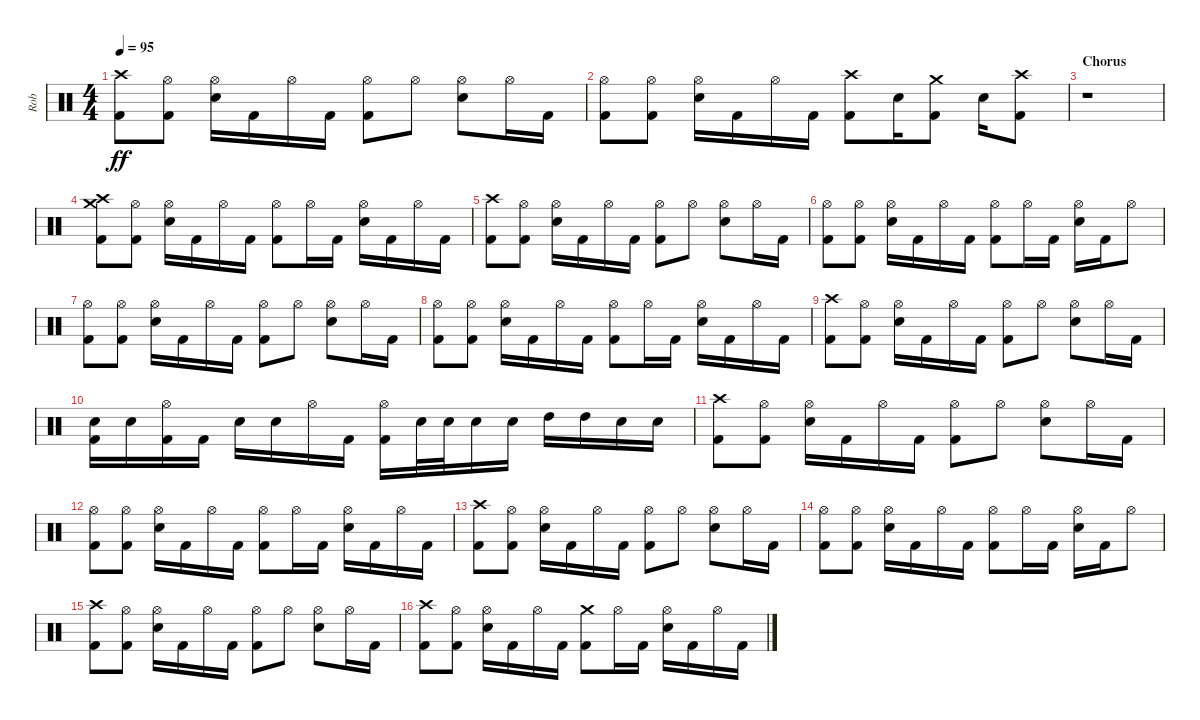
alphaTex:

\track ("Rob" "Rob") {instrument percussion}
\staff {score}
\articulation defaults
\ts (4 4)
\tempo 95
\clef neutral
\ks c
("Crash high (hit)" "Kick (hit) 2").8{dy ff} ("Hi-Hat (open)" "Kick (hit) 2").8 ("Hi-Hat (open)" "Snare (hit) 2").16 "Kick (hit) 2".16 "Hi-Hat (open)".16 "Kick (hit) 2".16 ("Hi-Hat (open)" "Kick (hit) 2").8 "Hi-Hat (open)".8 ("Hi-Hat (open)" "Snare (hit) 2").8 "Hi-Hat (open)".16 "Kick (hit) 2".16 |
("Hi-Hat (open)" "Kick (hit) 2").8 ("Hi-Hat (open)" "Kick (hit) 2").8 ("Hi-Hat (open)" "Snare (hit) 2").16 "Kick (hit) 2".16 "Hi-Hat (open)".16 "Kick (hit) 2".16 ("Crash high (hit)" "Kick (hit) 2").8 "Snare (hit) 2".16 ("Crash medium (hit)" "Kick (hit) 2").8 "Snare (hit) 2".16 ("Crash high (hit)" "Kick (hit) 2").8 |
\section ("" "Chorus")
r.1 |
("Crash high (hit)" "Crash medium (hit)" "Kick (hit) 2").8 ("Hi-Hat (open)" "Kick (hit) 2").8 ("Hi-Hat (open)" "Snare (hit) 2").16 "Kick (hit) 2".16 "Hi-Hat (open)".16 "Kick (hit) 2".16 ("Hi-Hat (open)" "Kick (hit) 2").8 "Hi-Hat (open)".16 "Kick (hit) 2".16 ("Hi-Hat (open)" "Snare (hit) 2").16 "Kick (hit) 2".16 "Hi-Hat (open)".16 "Kick (hit) 2".16 |
("Crash high (hit)" "Kick (hit) 2").8 ("Hi-Hat (open)" "Kick (hit) 2").8 ("Hi-Hat (open)" "Snare (hit) 2").16 "Kick (hit) 2".16 "Hi-Hat (open)".16 "Kick (hit) 2".16 ("Hi-Hat (open)" "Kick (hit) 2").8 "Hi-Hat (open)".8 ("Hi-Hat (open)" "Snare (hit) 2").8 "Hi-Hat (open)".16 "Kick (hit) 2".16 |
("Hi-Hat (open)" "Kick (hit) 2").8 ("Hi-Hat (open)" "Kick (hit) 2").8 ("Hi-Hat (open)" "Snare (hit) 2").16 "Kick (hit) 2".16 "Hi-Hat (open)".16 "Kick (hit) 2".16 ("Hi-Hat (open)" "Kick (hit) 2").8 "Hi-Hat (open)".16 "Kick (hit) 2".16 ("Hi-Hat (open)" "Snare (hit) 2").16 "Kick (hit) 2".16 "Hi-Hat (open)".8 |
("Hi-Hat (open)" "Kick (hit) 2").8 ("Hi-Hat (open)" "Kick (hit) 2").8 ("Hi-Hat (open)" "Snare (hit) 2").16 "Kick (hit) 2".16 "Hi-Hat (open)".16 "Kick (hit) 2".16 ("Hi-Hat (open)" "Kick (hit) 2").8 "Hi-Hat (open)".8 ("Hi-Hat (open)" "Snare (hit) 2").8 "Hi-Hat (open)".16 "Kick (hit) 2".16 |
("Hi-Hat (open)" "Kick (hit) 2").8 ("Hi-Hat (open)" "Kick (hit) 2").8 ("Hi-Hat (open)" "Snare (hit) 2").16 "Kick (hit) 2".16 "Hi-Hat (open)".16 "Kick (hit) 2".16 ("Hi-Hat (open)" "Kick (hit) 2").8 "Hi-Hat (open)".16 "Kick (hit) 2".16 ("Hi-Hat (open)" "Snare (hit) 2").16 "Kick (hit) 2".16 "Hi-Hat (open)".16 "Kick (hit) 2".16 |
("Crash high (hit)" "Kick (hit) 2").8 ("Hi-Hat (open)" "Kick (hit) 2").8 ("Hi-Hat (open)" "Snare (hit) 2").16 "Kick (hit) 2".16 "Hi-Hat (open)".16 "Kick (hit) 2".16 ("Hi-Hat (open)" "Kick (hit) 2").8 "Hi-Hat (open)".8 ("Hi-Hat (open)" "Snare (hit) 2").8 "Hi-Hat (open)".16 "Kick (hit) 2".16 |
("Snare (hit) 2" "Kick (hit) 2").16 "Snare (hit) 2".16 ("Hi-Hat (open)" "Kick (hit) 2").16 "Kick (hit) 2".16 "Snare (hit) 2".16 "Snare (hit) 2".16 "Hi-Hat (open)".16 "Kick (hit) 2".16 ("Hi-Hat (open)" "Kick (hit) 2").16 "Snare (hit) 2".32 "Snare (hit) 2".32 "Snare (hit) 2".16 "Snare (hit) 2".16 "High Tom (hit)".16 "High Tom (hit)".16 "Snare (hit) 2".16 "Snare (hit) 2".16 |
("Crash high (hit)" "Kick (hit) 2").8 ("Hi-Hat (open)" "Kick (hit) 2").8 ("Hi-Hat (open)" "Snare (hit) 2").16 "Kick (hit) 2".16 "Hi-Hat (open)".16 "Kick (hit) 2".16 ("Hi-Hat (open)" "Kick (hit) 2").8 "Hi-Hat (open)".8 ("Hi-Hat (open)" "Snare (hit) 2").8 "Hi-Hat (open)".16 "Kick (hit) 2".16 |
("Hi-Hat (open)" "Kick (hit) 2").8 ("Hi-Hat (open)" "Kick (hit) 2").8 ("Hi-Hat (open)" "Snare (hit) 2").16 "Kick (hit) 2".16 "Hi-Hat (open)".16 "Kick (hit) 2".16 ("Hi-Hat (open)" "Kick (hit) 2").8 "Hi-Hat (open)".16 "Kick (hit) 2".16 ("Hi-Hat (open)" "Snare (hit) 2").16 "Kick (hit) 2".16 "Hi-Hat (open)".16 "Kick (hit) 2".16 |
("Crash high (hit)" "Kick (hit) 2").8 ("Hi-Hat (open)" "Kick (hit) 2").8 ("Hi-Hat (open)" "Snare (hit) 2").16 "Kick (hit) 2".16 "Hi-Hat (open)".16 "Kick (hit) 2".16 ("Hi-Hat (open)" "Kick (hit) 2").8 "Hi-Hat (open)".8 ("Hi-Hat (open)" "Snare (hit) 2").8 "Hi-Hat (open)".16 "Kick (hit) 2".16 |
("Hi-Hat (open)" "Kick (hit) 2").8 ("Hi-Hat (open)" "Kick (hit) 2").8 ("Hi-Hat (open)" "Snare (hit) 2").16 "Kick (hit) 2".16 "Hi-Hat (open)".16 "Kick (hit) 2".16 ("Hi-Hat (open)" "Kick (hit) 2").8 "Hi-Hat (open)".16 "Kick (hit) 2".16 ("Hi-Hat (open)" "Snare (hit) 2").16 "Kick (hit) 2".16 "Hi-Hat (open)".8 |
("Crash high (hit)" "Kick (hit) 2").8 ("Hi-Hat (open)" "Kick (hit) 2").8 ("Hi-Hat (open)" "Snare (hit) 2").16 "Kick (hit) 2".16 "Hi-Hat (open)".16 "Kick (hit) 2".16 ("Hi-Hat (open)" "Kick (hit) 2").8 "Hi-Hat (open)".8 ("Hi-Hat (open)" "Snare (hit) 2").8 "Hi-Hat (open)".16 "Kick (hit) 2".16 |
("Crash high (hit)" "Kick (hit) 2").8 ("Hi-Hat (open)" "Kick (hit) 2").8 ("Hi-Hat (open)" "Snare (hit) 2").16 "Kick (hit) 2".16 "Hi-Hat (open)".16 "Kick (hit) 2".16 ("Crash medium (hit)" "Kick (hit) 2").8 "Hi-Hat (open)".16 "Kick (hit) 2".16 ("Hi-Hat (open)" "Snare (hit) 2").16 "Kick (hit) 2".16 "Hi-Hat (open)".16 "Kick (hit) 2".16
